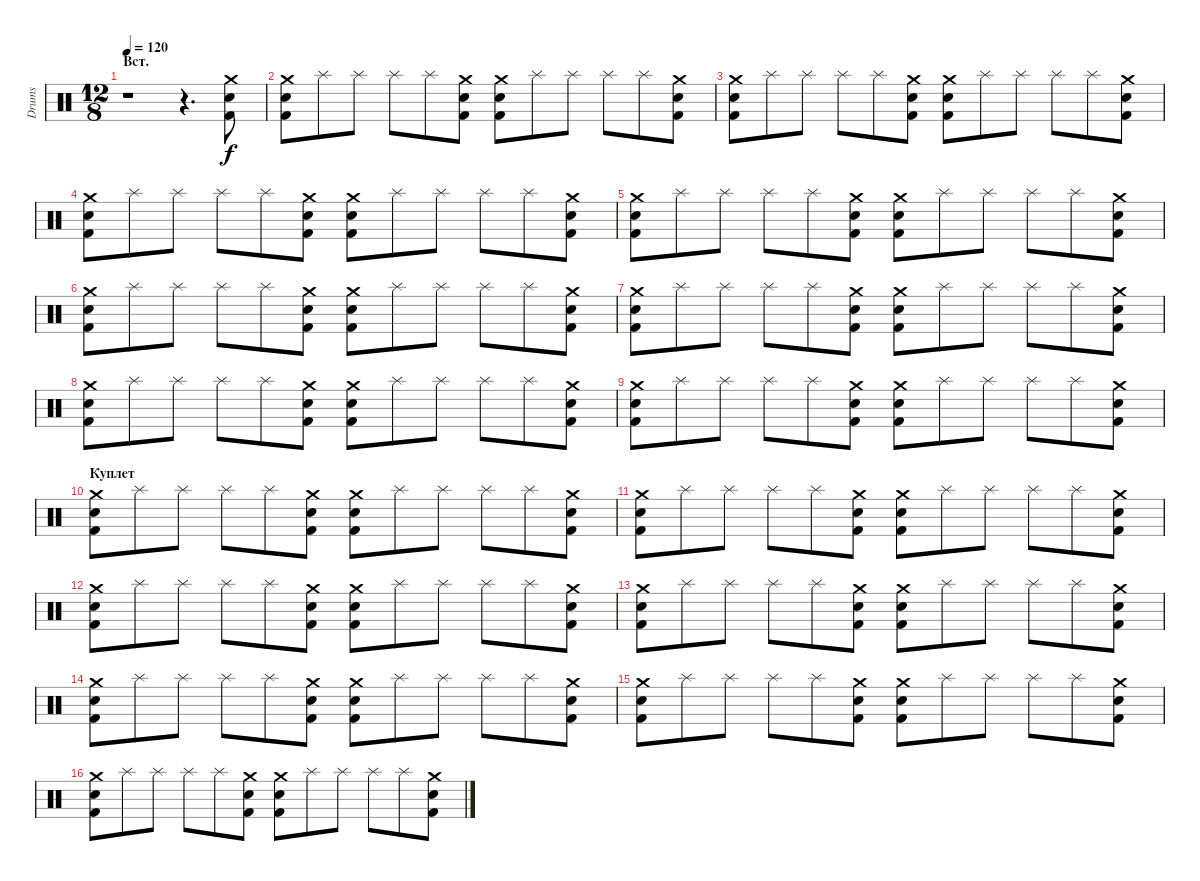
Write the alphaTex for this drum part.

\track ("Drums" "Drums") {instrument percussion}
\staff {score}
\articulation defaults
\ts (12 8)
\section ("" "Вст.")
\tempo 120
\clef neutral
\ks c
r.1{dy f} r.4{d} ("Crash medium (hit)" "Snare (hit) 2" "Kick (hit) 2").8 |
("Crash medium (hit)" "Snare (hit) 2" "Kick (hit) 2").8 "Splash (hit)".8 "Splash (hit)".8 "Splash (hit)".8 "Splash (hit)".8 ("Crash medium (hit)" "Snare (hit) 2" "Kick (hit) 2").8 ("Crash medium (hit)" "Snare (hit) 2" "Kick (hit) 2").8 "Splash (hit)".8 "Splash (hit)".8 "Splash (hit)".8 "Splash (hit)".8 ("Crash medium (hit)" "Snare (hit) 2" "Kick (hit) 2").8 |
("Crash medium (hit)" "Snare (hit) 2" "Kick (hit) 2").8 "Splash (hit)".8 "Splash (hit)".8 "Splash (hit)".8 "Splash (hit)".8 ("Crash medium (hit)" "Snare (hit) 2" "Kick (hit) 2").8 ("Crash medium (hit)" "Snare (hit) 2" "Kick (hit) 2").8 "Splash (hit)".8 "Splash (hit)".8 "Splash (hit)".8 "Splash (hit)".8 ("Crash medium (hit)" "Snare (hit) 2" "Kick (hit) 2").8 |
("Crash medium (hit)" "Snare (hit) 2" "Kick (hit) 2").8 "Splash (hit)".8 "Splash (hit)".8 "Splash (hit)".8 "Splash (hit)".8 ("Crash medium (hit)" "Snare (hit) 2" "Kick (hit) 2").8 ("Crash medium (hit)" "Snare (hit) 2" "Kick (hit) 2").8 "Splash (hit)".8 "Splash (hit)".8 "Splash (hit)".8 "Splash (hit)".8 ("Crash medium (hit)" "Snare (hit) 2" "Kick (hit) 2").8 |
("Crash medium (hit)" "Snare (hit) 2" "Kick (hit) 2").8 "Splash (hit)".8 "Splash (hit)".8 "Splash (hit)".8 "Splash (hit)".8 ("Crash medium (hit)" "Snare (hit) 2" "Kick (hit) 2").8 ("Crash medium (hit)" "Snare (hit) 2" "Kick (hit) 2").8 "Splash (hit)".8 "Splash (hit)".8 "Splash (hit)".8 "Splash (hit)".8 ("Crash medium (hit)" "Snare (hit) 2" "Kick (hit) 2").8 |
("Crash medium (hit)" "Snare (hit) 2" "Kick (hit) 2").8 "Splash (hit)".8 "Splash (hit)".8 "Splash (hit)".8 "Splash (hit)".8 ("Crash medium (hit)" "Snare (hit) 2" "Kick (hit) 2").8 ("Crash medium (hit)" "Snare (hit) 2" "Kick (hit) 2").8 "Splash (hit)".8 "Splash (hit)".8 "Splash (hit)".8 "Splash (hit)".8 ("Crash medium (hit)" "Snare (hit) 2" "Kick (hit) 2").8 |
("Crash medium (hit)" "Snare (hit) 2" "Kick (hit) 2").8 "Splash (hit)".8 "Splash (hit)".8 "Splash (hit)".8 "Splash (hit)".8 ("Crash medium (hit)" "Snare (hit) 2" "Kick (hit) 2").8 ("Crash medium (hit)" "Snare (hit) 2" "Kick (hit) 2").8 "Splash (hit)".8 "Splash (hit)".8 "Splash (hit)".8 "Splash (hit)".8 ("Crash medium (hit)" "Snare (hit) 2" "Kick (hit) 2").8 |
("Crash medium (hit)" "Snare (hit) 2" "Kick (hit) 2").8 "Splash (hit)".8 "Splash (hit)".8 "Splash (hit)".8 "Splash (hit)".8 ("Crash medium (hit)" "Snare (hit) 2" "Kick (hit) 2").8 ("Crash medium (hit)" "Snare (hit) 2" "Kick (hit) 2").8 "Splash (hit)".8 "Splash (hit)".8 "Splash (hit)".8 "Splash (hit)".8 ("Crash medium (hit)" "Snare (hit) 2" "Kick (hit) 2").8 |
("Crash medium (hit)" "Snare (hit) 2" "Kick (hit) 2").8 "Splash (hit)".8 "Splash (hit)".8 "Splash (hit)".8 "Splash (hit)".8 ("Crash medium (hit)" "Snare (hit) 2" "Kick (hit) 2").8 ("Crash medium (hit)" "Snare (hit) 2" "Kick (hit) 2").8 "Splash (hit)".8 "Splash (hit)".8 "Splash (hit)".8 "Splash (hit)".8 ("Crash medium (hit)" "Snare (hit) 2" "Kick (hit) 2").8 |
\section ("" "Куплет")
("Crash medium (hit)" "Snare (hit) 2" "Kick (hit) 2").8 "Splash (hit)".8 "Splash (hit)".8 "Splash (hit)".8 "Splash (hit)".8 ("Crash medium (hit)" "Snare (hit) 2" "Kick (hit) 2").8 ("Crash medium (hit)" "Snare (hit) 2" "Kick (hit) 2").8 "Splash (hit)".8 "Splash (hit)".8 "Splash (hit)".8 "Splash (hit)".8 ("Crash medium (hit)" "Snare (hit) 2" "Kick (hit) 2").8 |
("Crash medium (hit)" "Snare (hit) 2" "Kick (hit) 2").8 "Splash (hit)".8 "Splash (hit)".8 "Splash (hit)".8 "Splash (hit)".8 ("Crash medium (hit)" "Snare (hit) 2" "Kick (hit) 2").8 ("Crash medium (hit)" "Snare (hit) 2" "Kick (hit) 2").8 "Splash (hit)".8 "Splash (hit)".8 "Splash (hit)".8 "Splash (hit)".8 ("Crash medium (hit)" "Snare (hit) 2" "Kick (hit) 2").8 |
("Crash medium (hit)" "Snare (hit) 2" "Kick (hit) 2").8 "Splash (hit)".8 "Splash (hit)".8 "Splash (hit)".8 "Splash (hit)".8 ("Crash medium (hit)" "Snare (hit) 2" "Kick (hit) 2").8 ("Crash medium (hit)" "Snare (hit) 2" "Kick (hit) 2").8 "Splash (hit)".8 "Splash (hit)".8 "Splash (hit)".8 "Splash (hit)".8 ("Crash medium (hit)" "Snare (hit) 2" "Kick (hit) 2").8 |
("Crash medium (hit)" "Snare (hit) 2" "Kick (hit) 2").8 "Splash (hit)".8 "Splash (hit)".8 "Splash (hit)".8 "Splash (hit)".8 ("Crash medium (hit)" "Snare (hit) 2" "Kick (hit) 2").8 ("Crash medium (hit)" "Snare (hit) 2" "Kick (hit) 2").8 "Splash (hit)".8 "Splash (hit)".8 "Splash (hit)".8 "Splash (hit)".8 ("Crash medium (hit)" "Snare (hit) 2" "Kick (hit) 2").8 |
("Crash medium (hit)" "Snare (hit) 2" "Kick (hit) 2").8 "Splash (hit)".8 "Splash (hit)".8 "Splash (hit)".8 "Splash (hit)".8 ("Crash medium (hit)" "Snare (hit) 2" "Kick (hit) 2").8 ("Crash medium (hit)" "Snare (hit) 2" "Kick (hit) 2").8 "Splash (hit)".8 "Splash (hit)".8 "Splash (hit)".8 "Splash (hit)".8 ("Crash medium (hit)" "Snare (hit) 2" "Kick (hit) 2").8 |
("Crash medium (hit)" "Snare (hit) 2" "Kick (hit) 2").8 "Splash (hit)".8 "Splash (hit)".8 "Splash (hit)".8 "Splash (hit)".8 ("Crash medium (hit)" "Snare (hit) 2" "Kick (hit) 2").8 ("Crash medium (hit)" "Snare (hit) 2" "Kick (hit) 2").8 "Splash (hit)".8 "Splash (hit)".8 "Splash (hit)".8 "Splash (hit)".8 ("Crash medium (hit)" "Snare (hit) 2" "Kick (hit) 2").8 |
("Crash medium (hit)" "Snare (hit) 2" "Kick (hit) 2").8 "Splash (hit)".8 "Splash (hit)".8 "Splash (hit)".8 "Splash (hit)".8 ("Crash medium (hit)" "Snare (hit) 2" "Kick (hit) 2").8 ("Crash medium (hit)" "Snare (hit) 2" "Kick (hit) 2").8 "Splash (hit)".8 "Splash (hit)".8 "Splash (hit)".8 "Splash (hit)".8 ("Crash medium (hit)" "Snare (hit) 2" "Kick (hit) 2").8
